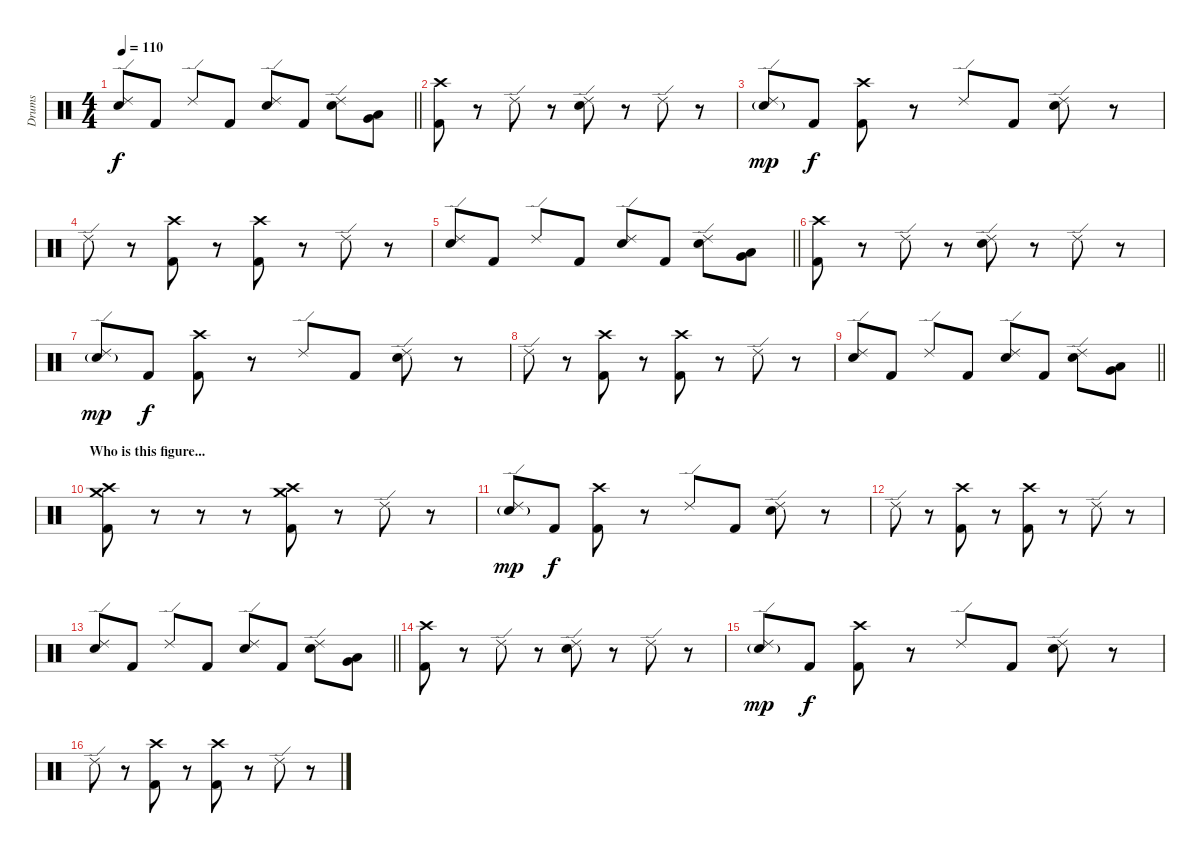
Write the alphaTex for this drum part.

\track ("Drums" "Drums") {instrument percussion}
\staff {score}
\articulation defaults
\ts (4 4)
\tempo 110
\clef neutral
\barLineRight lightlight
\ks c
("Ride (edge) 2" "Snare (hit) 2").8{dy f} "Kick (hit) 2".8 "Ride (edge) 2".8 "Kick (hit) 2".8 ("Ride (edge) 2" "Snare (hit) 2").8 "Kick (hit) 2".8 ("Ride (edge) 2" "Snare (hit) 2").8 ("Very Low Tom (hit)" "Low Floor Tom (hit)").8 |
("Crash high (hit)" "Kick (hit) 2").8 r.8 "Ride (edge) 2".8 r.8 ("Ride (edge) 2" "Snare (hit) 2").8 r.8 "Ride (edge) 2".8 r.8 |
("Ride (edge) 2" "Snare (hit) 2"{g}).8{dy mp} "Kick (hit) 2".8{dy f} ("Crash high (hit)" "Kick (hit) 2").8 r.8 "Ride (edge) 2".8 "Kick (hit) 2".8 ("Ride (edge) 2" "Snare (hit) 2").8 r.8 |
"Ride (edge) 2".8 r.8 ("Crash high (hit)" "Kick (hit) 2").8 r.8 ("Crash high (hit)" "Kick (hit) 2").8 r.8 "Ride (edge) 2".8 r.8 |
\barLineRight lightlight
("Ride (edge) 2" "Snare (hit) 2").8 "Kick (hit) 2".8 "Ride (edge) 2".8 "Kick (hit) 2".8 ("Ride (edge) 2" "Snare (hit) 2").8 "Kick (hit) 2".8 ("Ride (edge) 2" "Snare (hit) 2").8 ("Very Low Tom (hit)" "Low Floor Tom (hit)").8 |
("Crash high (hit)" "Kick (hit) 2").8 r.8 "Ride (edge) 2".8 r.8 ("Ride (edge) 2" "Snare (hit) 2").8 r.8 "Ride (edge) 2".8 r.8 |
("Ride (edge) 2" "Snare (hit) 2"{g}).8{dy mp} "Kick (hit) 2".8{dy f} ("Crash high (hit)" "Kick (hit) 2").8 r.8 "Ride (edge) 2".8 "Kick (hit) 2".8 ("Ride (edge) 2" "Snare (hit) 2").8 r.8 |
"Ride (edge) 2".8 r.8 ("Crash high (hit)" "Kick (hit) 2").8 r.8 ("Crash high (hit)" "Kick (hit) 2").8 r.8 "Ride (edge) 2".8 r.8 |
\barLineRight lightlight
("Ride (edge) 2" "Snare (hit) 2").8 "Kick (hit) 2".8 "Ride (edge) 2".8 "Kick (hit) 2".8 ("Ride (edge) 2" "Snare (hit) 2").8 "Kick (hit) 2".8 ("Ride (edge) 2" "Snare (hit) 2").8 ("Very Low Tom (hit)" "Low Floor Tom (hit)").8 |
\section ("" "Who is this figure...")
("Crash medium (hit)" "Crash high (hit)" "Kick (hit) 2").8 r.8 r.8 r.8 ("Crash medium (hit)" "Crash high (hit)" "Kick (hit) 2").8 r.8 "Ride (edge) 2".8 r.8 |
("Ride (edge) 2" "Snare (hit) 2"{g}).8{dy mp} "Kick (hit) 2".8{dy f} ("Crash high (hit)" "Kick (hit) 2").8 r.8 "Ride (edge) 2".8 "Kick (hit) 2".8 ("Ride (edge) 2" "Snare (hit) 2").8 r.8 |
"Ride (edge) 2".8 r.8 ("Crash high (hit)" "Kick (hit) 2").8 r.8 ("Crash high (hit)" "Kick (hit) 2").8 r.8 "Ride (edge) 2".8 r.8 |
\barLineRight lightlight
("Ride (edge) 2" "Snare (hit) 2").8 "Kick (hit) 2".8 "Ride (edge) 2".8 "Kick (hit) 2".8 ("Ride (edge) 2" "Snare (hit) 2").8 "Kick (hit) 2".8 ("Ride (edge) 2" "Snare (hit) 2").8 ("Very Low Tom (hit)" "Low Floor Tom (hit)").8 |
("Crash high (hit)" "Kick (hit) 2").8 r.8 "Ride (edge) 2".8 r.8 ("Ride (edge) 2" "Snare (hit) 2").8 r.8 "Ride (edge) 2".8 r.8 |
("Ride (edge) 2" "Snare (hit) 2"{g}).8{dy mp} "Kick (hit) 2".8{dy f} ("Crash high (hit)" "Kick (hit) 2").8 r.8 "Ride (edge) 2".8 "Kick (hit) 2".8 ("Ride (edge) 2" "Snare (hit) 2").8 r.8 |
"Ride (edge) 2".8 r.8 ("Crash high (hit)" "Kick (hit) 2").8 r.8 ("Crash high (hit)" "Kick (hit) 2").8 r.8 "Ride (edge) 2".8 r.8
